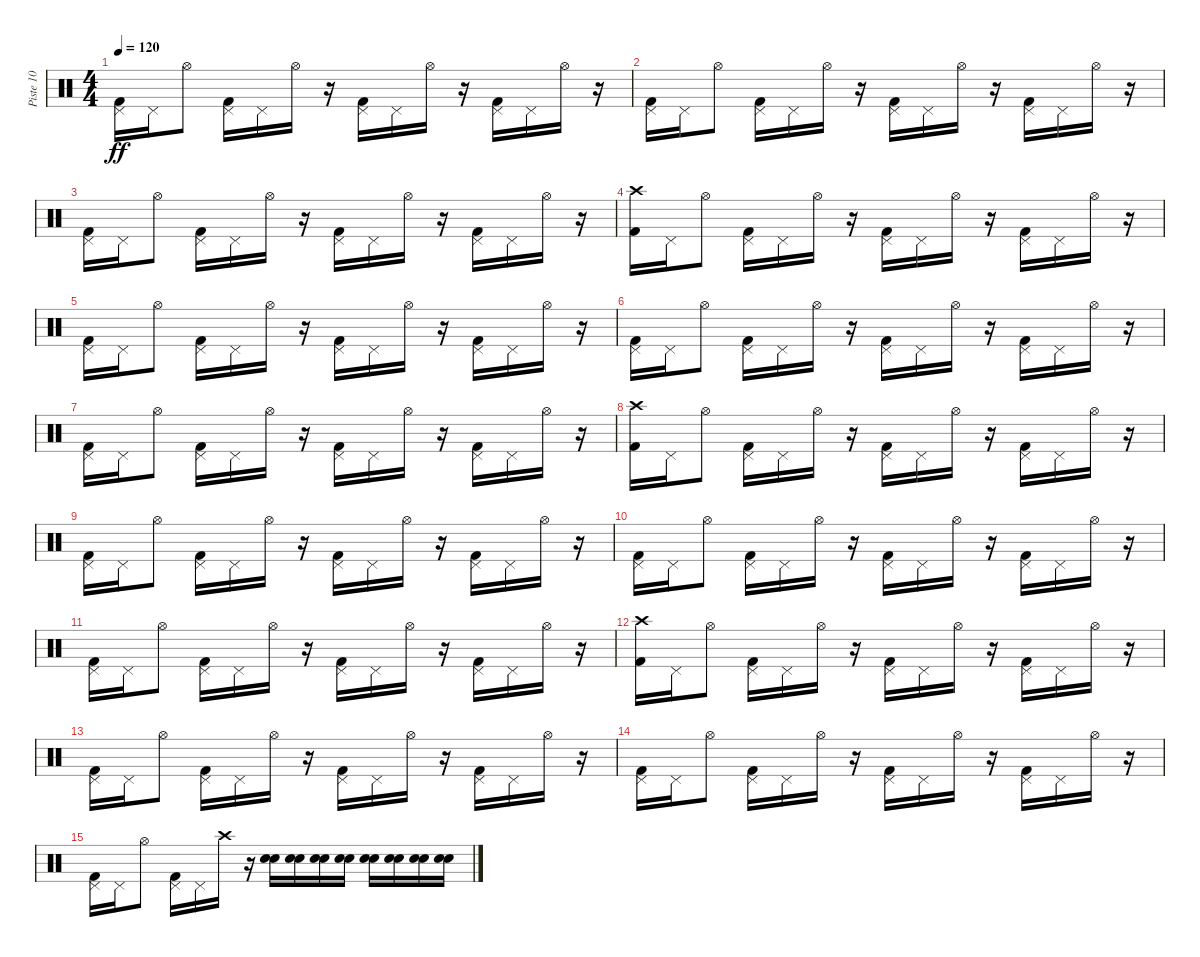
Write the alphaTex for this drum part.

\track ("Piste 10" "Piste 10") {instrument percussion}
\staff {score}
\articulation defaults
\ts (4 4)
\tempo 120
\clef neutral
\ks c
("Kick (hit) 2" "Pedal Hi-Hat (hit)").16{dy ff} "Pedal Hi-Hat (hit)".16 "Hi-Hat (open)".8 ("Kick (hit) 2" "Pedal Hi-Hat (hit)").16 "Pedal Hi-Hat (hit)".16 "Hi-Hat (open)".16 r.16 ("Kick (hit) 2" "Pedal Hi-Hat (hit)").16 "Pedal Hi-Hat (hit)".16 "Hi-Hat (open)".16 r.16 ("Kick (hit) 2" "Pedal Hi-Hat (hit)").16 "Pedal Hi-Hat (hit)".16 "Hi-Hat (open)".16 r.16 |
("Kick (hit) 2" "Pedal Hi-Hat (hit)").16 "Pedal Hi-Hat (hit)".16 "Hi-Hat (open)".8 ("Kick (hit) 2" "Pedal Hi-Hat (hit)").16 "Pedal Hi-Hat (hit)".16 "Hi-Hat (open)".16 r.16 ("Kick (hit) 2" "Pedal Hi-Hat (hit)").16 "Pedal Hi-Hat (hit)".16 "Hi-Hat (open)".16 r.16 ("Kick (hit) 2" "Pedal Hi-Hat (hit)").16 "Pedal Hi-Hat (hit)".16 "Hi-Hat (open)".16 r.16 |
("Kick (hit) 2" "Pedal Hi-Hat (hit)").16 "Pedal Hi-Hat (hit)".16 "Hi-Hat (open)".8 ("Kick (hit) 2" "Pedal Hi-Hat (hit)").16 "Pedal Hi-Hat (hit)".16 "Hi-Hat (open)".16 r.16 ("Kick (hit) 2" "Pedal Hi-Hat (hit)").16 "Pedal Hi-Hat (hit)".16 "Hi-Hat (open)".16 r.16 ("Kick (hit) 2" "Pedal Hi-Hat (hit)").16 "Pedal Hi-Hat (hit)".16 "Hi-Hat (open)".16 r.16 |
("Crash high (hit)" "Kick (hit) 2").16 "Pedal Hi-Hat (hit)".16 "Hi-Hat (open)".8 ("Kick (hit) 2" "Pedal Hi-Hat (hit)").16 "Pedal Hi-Hat (hit)".16 "Hi-Hat (open)".16 r.16 ("Kick (hit) 2" "Pedal Hi-Hat (hit)").16 "Pedal Hi-Hat (hit)".16 "Hi-Hat (open)".16 r.16 ("Kick (hit) 2" "Pedal Hi-Hat (hit)").16 "Pedal Hi-Hat (hit)".16 "Hi-Hat (open)".16 r.16 |
("Kick (hit) 2" "Pedal Hi-Hat (hit)").16 "Pedal Hi-Hat (hit)".16 "Hi-Hat (open)".8 ("Kick (hit) 2" "Pedal Hi-Hat (hit)").16 "Pedal Hi-Hat (hit)".16 "Hi-Hat (open)".16 r.16 ("Kick (hit) 2" "Pedal Hi-Hat (hit)").16 "Pedal Hi-Hat (hit)".16 "Hi-Hat (open)".16 r.16 ("Kick (hit) 2" "Pedal Hi-Hat (hit)").16 "Pedal Hi-Hat (hit)".16 "Hi-Hat (open)".16 r.16 |
("Kick (hit) 2" "Pedal Hi-Hat (hit)").16 "Pedal Hi-Hat (hit)".16 "Hi-Hat (open)".8 ("Kick (hit) 2" "Pedal Hi-Hat (hit)").16 "Pedal Hi-Hat (hit)".16 "Hi-Hat (open)".16 r.16 ("Kick (hit) 2" "Pedal Hi-Hat (hit)").16 "Pedal Hi-Hat (hit)".16 "Hi-Hat (open)".16 r.16 ("Kick (hit) 2" "Pedal Hi-Hat (hit)").16 "Pedal Hi-Hat (hit)".16 "Hi-Hat (open)".16 r.16 |
("Kick (hit) 2" "Pedal Hi-Hat (hit)").16 "Pedal Hi-Hat (hit)".16 "Hi-Hat (open)".8 ("Kick (hit) 2" "Pedal Hi-Hat (hit)").16 "Pedal Hi-Hat (hit)".16 "Hi-Hat (open)".16 r.16 ("Kick (hit) 2" "Pedal Hi-Hat (hit)").16 "Pedal Hi-Hat (hit)".16 "Hi-Hat (open)".16 r.16 ("Kick (hit) 2" "Pedal Hi-Hat (hit)").16 "Pedal Hi-Hat (hit)".16 "Hi-Hat (open)".16 r.16 |
("Crash high (hit)" "Kick (hit) 2").16 "Pedal Hi-Hat (hit)".16 "Hi-Hat (open)".8 ("Kick (hit) 2" "Pedal Hi-Hat (hit)").16 "Pedal Hi-Hat (hit)".16 "Hi-Hat (open)".16 r.16 ("Kick (hit) 2" "Pedal Hi-Hat (hit)").16 "Pedal Hi-Hat (hit)".16 "Hi-Hat (open)".16 r.16 ("Kick (hit) 2" "Pedal Hi-Hat (hit)").16 "Pedal Hi-Hat (hit)".16 "Hi-Hat (open)".16 r.16 |
("Kick (hit) 2" "Pedal Hi-Hat (hit)").16 "Pedal Hi-Hat (hit)".16 "Hi-Hat (open)".8 ("Kick (hit) 2" "Pedal Hi-Hat (hit)").16 "Pedal Hi-Hat (hit)".16 "Hi-Hat (open)".16 r.16 ("Kick (hit) 2" "Pedal Hi-Hat (hit)").16 "Pedal Hi-Hat (hit)".16 "Hi-Hat (open)".16 r.16 ("Kick (hit) 2" "Pedal Hi-Hat (hit)").16 "Pedal Hi-Hat (hit)".16 "Hi-Hat (open)".16 r.16 |
("Kick (hit) 2" "Pedal Hi-Hat (hit)").16 "Pedal Hi-Hat (hit)".16 "Hi-Hat (open)".8 ("Kick (hit) 2" "Pedal Hi-Hat (hit)").16 "Pedal Hi-Hat (hit)".16 "Hi-Hat (open)".16 r.16 ("Kick (hit) 2" "Pedal Hi-Hat (hit)").16 "Pedal Hi-Hat (hit)".16 "Hi-Hat (open)".16 r.16 ("Kick (hit) 2" "Pedal Hi-Hat (hit)").16 "Pedal Hi-Hat (hit)".16 "Hi-Hat (open)".16 r.16 |
("Kick (hit) 2" "Pedal Hi-Hat (hit)").16 "Pedal Hi-Hat (hit)".16 "Hi-Hat (open)".8 ("Kick (hit) 2" "Pedal Hi-Hat (hit)").16 "Pedal Hi-Hat (hit)".16 "Hi-Hat (open)".16 r.16 ("Kick (hit) 2" "Pedal Hi-Hat (hit)").16 "Pedal Hi-Hat (hit)".16 "Hi-Hat (open)".16 r.16 ("Kick (hit) 2" "Pedal Hi-Hat (hit)").16 "Pedal Hi-Hat (hit)".16 "Hi-Hat (open)".16 r.16 |
("Crash high (hit)" "Kick (hit) 2").16 "Pedal Hi-Hat (hit)".16 "Hi-Hat (open)".8 ("Kick (hit) 2" "Pedal Hi-Hat (hit)").16 "Pedal Hi-Hat (hit)".16 "Hi-Hat (open)".16 r.16 ("Kick (hit) 2" "Pedal Hi-Hat (hit)").16 "Pedal Hi-Hat (hit)".16 "Hi-Hat (open)".16 r.16 ("Kick (hit) 2" "Pedal Hi-Hat (hit)").16 "Pedal Hi-Hat (hit)".16 "Hi-Hat (open)".16 r.16 |
("Kick (hit) 2" "Pedal Hi-Hat (hit)").16 "Pedal Hi-Hat (hit)".16 "Hi-Hat (open)".8 ("Kick (hit) 2" "Pedal Hi-Hat (hit)").16 "Pedal Hi-Hat (hit)".16 "Hi-Hat (open)".16 r.16 ("Kick (hit) 2" "Pedal Hi-Hat (hit)").16 "Pedal Hi-Hat (hit)".16 "Hi-Hat (open)".16 r.16 ("Kick (hit) 2" "Pedal Hi-Hat (hit)").16 "Pedal Hi-Hat (hit)".16 "Hi-Hat (open)".16 r.16 |
("Kick (hit) 2" "Pedal Hi-Hat (hit)").16 "Pedal Hi-Hat (hit)".16 "Hi-Hat (open)".8 ("Kick (hit) 2" "Pedal Hi-Hat (hit)").16 "Pedal Hi-Hat (hit)".16 "Hi-Hat (open)".16 r.16 ("Kick (hit) 2" "Pedal Hi-Hat (hit)").16 "Pedal Hi-Hat (hit)".16 "Hi-Hat (open)".16 r.16 ("Kick (hit) 2" "Pedal Hi-Hat (hit)").16 "Pedal Hi-Hat (hit)".16 "Hi-Hat (open)".16 r.16 |
("Kick (hit) 2" "Pedal Hi-Hat (hit)").16 "Pedal Hi-Hat (hit)".16 "Hi-Hat (open)".8 ("Kick (hit) 2" "Pedal Hi-Hat (hit)").16 "Pedal Hi-Hat (hit)".16 "Crash high (hit)".16 r.16 ("Snare (hit) 2" "Electric Snare (hit)").16 ("Snare (hit) 2" "Electric Snare (hit)").16 ("Snare (hit) 2" "Electric Snare (hit)").16 ("Snare (hit) 2" "Electric Snare (hit)").16 ("Snare (hit) 2" "Electric Snare (hit)").16 ("Snare (hit) 2" "Electric Snare (hit)").16 ("Snare (hit) 2" "Electric Snare (hit)").16 ("Snare (hit) 2" "Electric Snare (hit)").16
